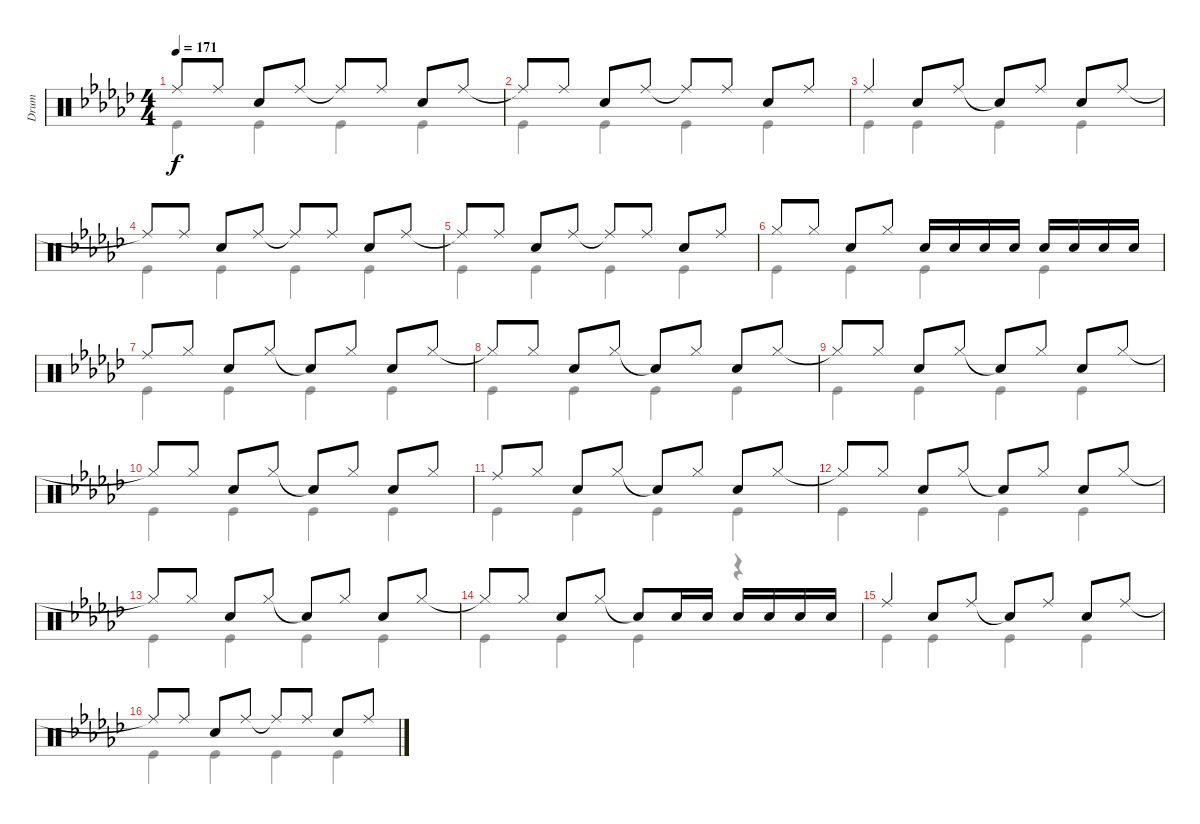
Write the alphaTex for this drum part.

\track ("Drum" "Drum") {instrument percussion}
\staff {score}
\articulation defaults
\voice
\ts (4 4)
\tempo 171
\clef neutral
\ks gb "Ride (middle)"{t}.8{dy f} "Ride (middle)".8 "Snare (hit) 2".8 "Ride (middle)".8 "Ride (middle)"{t}.8 "Ride (middle)".8 "Snare (hit) 2".8 "Ride (middle)".8
|
"Ride (middle)"{t}.8 "Ride (middle)".8 "Snare (hit) 2".8 "Ride (middle)".8 "Ride (middle)"{t}.8 "Ride (middle)".8 "Snare (hit) 2".8 "Ride (middle)".8 |
"Ride (middle)".4 "Snare (hit) 2".8 "Ride (middle)".8 "Snare (hit)"{t}.8 "Ride (middle)".8 "Snare (hit) 2".8 "Ride (middle)".8 |
"Ride (middle)"{t}.8 "Ride (middle)".8 "Snare (hit) 2".8 "Ride (middle)".8 "Ride (middle)"{t}.8 "Ride (middle)".8 "Snare (hit) 2".8 "Ride (middle)".8 |
"Ride (middle)"{t}.8 "Ride (middle)".8 "Snare (hit) 2".8 "Ride (middle)".8 "Ride (middle)"{t}.8 "Ride (middle)".8 "Snare (hit) 2".8 "Ride (middle)".8 |
"Hi-Hat (closed)".8 "Hi-Hat (closed)".8 "Snare (hit) 2".8 "Hi-Hat (closed)".8 "Snare (hit) 2".16 "Snare (hit) 2".16 "Snare (hit) 2".16 "Snare (hit) 2".16 "Snare (hit) 2".16 "Snare (hit) 2".16 "Snare (hit) 2".16 "Snare (hit) 2".16 |
"Ride (middle)".8 "Hi-Hat (closed)".8 "Snare (hit) 2".8 "Hi-Hat (closed)".8 "Snare (hit)"{t}.8 "Hi-Hat (closed)".8 "Snare (hit) 2".8 "Hi-Hat (closed)".8 |
"Hi-Hat (closed)"{t}.8 "Hi-Hat (closed)".8 "Snare (hit) 2".8 "Hi-Hat (closed)".8 "Snare (hit)"{t}.8 "Hi-Hat (closed)".8 "Snare (hit) 2".8 "Hi-Hat (closed)".8 |
"Hi-Hat (closed)"{t}.8 "Hi-Hat (closed)".8 "Snare (hit) 2".8 "Hi-Hat (closed)".8 "Snare (hit)"{t}.8 "Hi-Hat (closed)".8 "Snare (hit) 2".8 "Hi-Hat (closed)".8 |
"Hi-Hat (closed)"{t}.8 "Hi-Hat (closed)".8 "Snare (hit) 2".8 "Hi-Hat (closed)".8 "Snare (hit)"{t}.8 "Hi-Hat (closed)".8 "Snare (hit) 2".8 "Hi-Hat (closed)".8 |
"Ride (middle)".8 "Hi-Hat (closed)".8 "Snare (hit) 2".8 "Hi-Hat (closed)".8 "Snare (hit)"{t}.8 "Hi-Hat (closed)".8 "Snare (hit) 2".8 "Hi-Hat (closed)".8 |
"Hi-Hat (closed)"{t}.8 "Hi-Hat (closed)".8 "Snare (hit) 2".8 "Hi-Hat (closed)".8 "Snare (hit)"{t}.8 "Hi-Hat (closed)".8 "Snare (hit) 2".8 "Hi-Hat (closed)".8 |
"Hi-Hat (closed)"{t}.8 "Hi-Hat (closed)".8 "Snare (hit) 2".8 "Hi-Hat (closed)".8 "Snare (hit)"{t}.8 "Hi-Hat (closed)".8 "Snare (hit) 2".8 "Hi-Hat (closed)".8 |
"Hi-Hat (closed)"{t}.8 "Hi-Hat (closed)".8 "Snare (hit) 2".8 "Hi-Hat (closed)".8 "Snare (hit)"{t}.8 "Snare (hit) 2".16 "Snare (hit) 2".16 "Snare (hit) 2".16 "Snare (hit) 2".16 "Snare (hit) 2".16 "Snare (hit) 2".16 |
"Ride (middle)".4 "Snare (hit) 2".8 "Ride (middle)".8 "Snare (hit)"{t}.8 "Ride (middle)".8 "Snare (hit) 2".8 "Ride (middle)".8 |
"Ride (middle)"{t}.8 "Ride (middle)".8 "Snare (hit) 2".8 "Ride (middle)".8 "Ride (middle)"{t}.8 "Ride (middle)".8 "Snare (hit) 2".8 "Ride (middle)".8
\voice
\clef neutral
\ottava regular
\simile none
\ks gb "Kick (hit)".4{dy f} "Kick (hit)".4 "Kick (hit)".4 "Kick (hit)".4
|
"Kick (hit)".4 "Kick (hit)".4 "Kick (hit)".4 "Kick (hit)".4 |
"Kick (hit)".4 "Kick (hit)".4 "Kick (hit)".4 "Kick (hit)".4 |
"Kick (hit)".4 "Kick (hit)".4 "Kick (hit)".4 "Kick (hit)".4 |
"Kick (hit)".4 "Kick (hit)".4 "Kick (hit)".4 "Kick (hit)".4 |
"Kick (hit)".4 "Kick (hit)".4 "Kick (hit)".4 "Kick (hit)".4 |
"Kick (hit)".4 "Kick (hit)".4 "Kick (hit)".4 "Kick (hit)".4 |
"Kick (hit)".4 "Kick (hit)".4 "Kick (hit)".4 "Kick (hit)".4 |
"Kick (hit)".4 "Kick (hit)".4 "Kick (hit)".4 "Kick (hit)".4 |
"Kick (hit)".4 "Kick (hit)".4 "Kick (hit)".4 "Kick (hit)".4 |
"Kick (hit)".4 "Kick (hit)".4 "Kick (hit)".4 "Kick (hit)".4 |
"Kick (hit)".4 "Kick (hit)".4 "Kick (hit)".4 "Kick (hit)".4 |
"Kick (hit)".4 "Kick (hit)".4 "Kick (hit)".4 "Kick (hit)".4 |
"Kick (hit)".4 "Kick (hit)".4 "Kick (hit)".4 r.4 |
"Kick (hit)".4 "Kick (hit)".4 "Kick (hit)".4 "Kick (hit)".4 |
"Kick (hit)".4 "Kick (hit)".4 "Kick (hit)".4 "Kick (hit)".4
